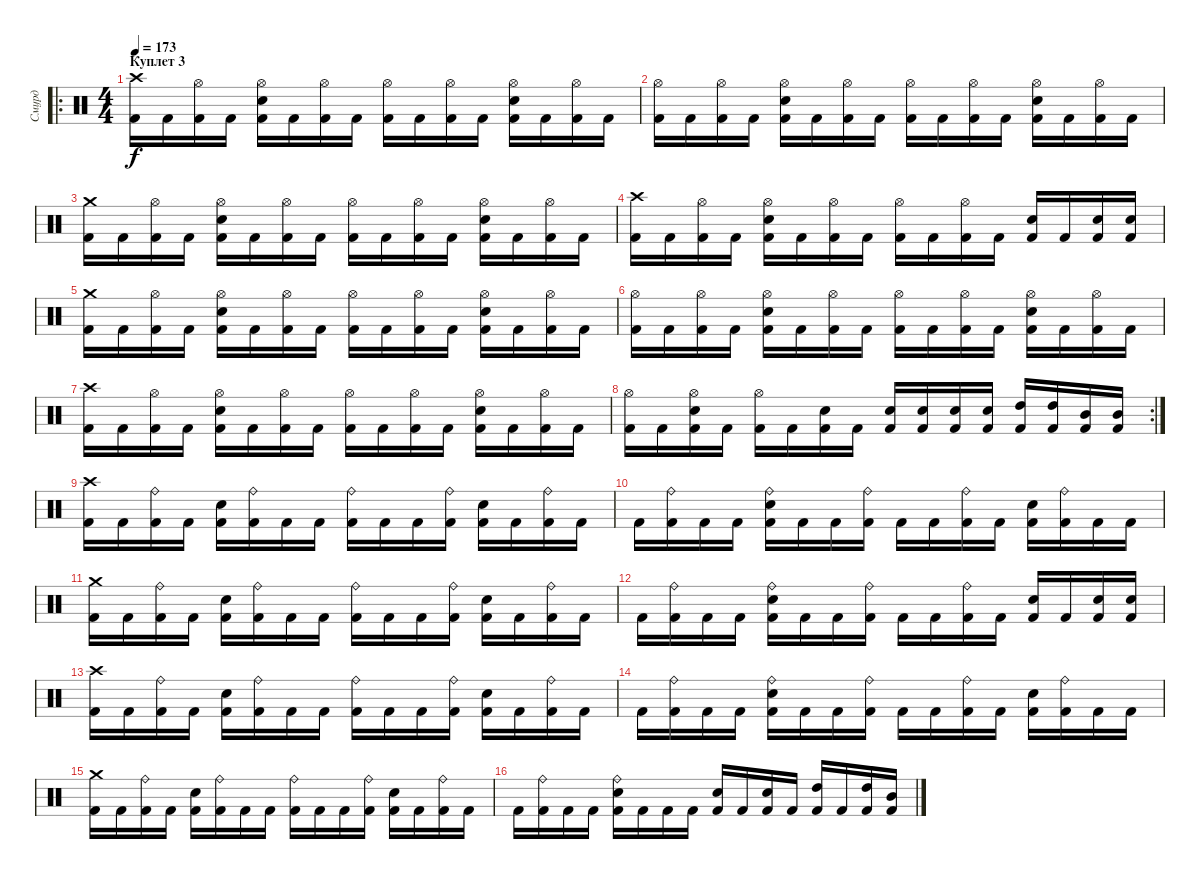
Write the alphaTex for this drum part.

\track ("Смурд" "Смурд") {instrument percussion}
\staff {score}
\articulation defaults
\ro
\ts (4 4)
\section ("" "Куплет 3")
\tempo 173
\clef neutral
\ks c
("Crash high (hit)" "Kick (hit) 2").16{dy f} "Kick (hit) 2".16 ("Hi-Hat (open)" "Kick (hit) 2").16 "Kick (hit) 2".16 ("Hi-Hat (open)" "Electric Snare (hit)" "Kick (hit) 2").16 "Kick (hit) 2".16 ("Hi-Hat (open)" "Kick (hit) 2").16 "Kick (hit) 2".16 ("Hi-Hat (open)" "Kick (hit) 2").16 "Kick (hit) 2".16 ("Hi-Hat (open)" "Kick (hit) 2").16 "Kick (hit) 2".16 ("Hi-Hat (open)" "Electric Snare (hit)" "Kick (hit) 2").16 "Kick (hit) 2".16 ("Hi-Hat (open)" "Kick (hit) 2").16 "Kick (hit) 2".16 |
("Hi-Hat (open)" "Kick (hit) 2").16 "Kick (hit) 2".16 ("Hi-Hat (open)" "Kick (hit) 2").16 "Kick (hit) 2".16 ("Hi-Hat (open)" "Electric Snare (hit)" "Kick (hit) 2").16 "Kick (hit) 2".16 ("Hi-Hat (open)" "Kick (hit) 2").16 "Kick (hit) 2".16 ("Hi-Hat (open)" "Kick (hit) 2").16 "Kick (hit) 2".16 ("Hi-Hat (open)" "Kick (hit) 2").16 "Kick (hit) 2".16 ("Hi-Hat (open)" "Electric Snare (hit)" "Kick (hit) 2").16 "Kick (hit) 2".16 ("Hi-Hat (open)" "Kick (hit) 2").16 "Kick (hit) 2".16 |
("Crash medium (hit)" "Kick (hit) 2").16 "Kick (hit) 2".16 ("Hi-Hat (open)" "Kick (hit) 2").16 "Kick (hit) 2".16 ("Hi-Hat (open)" "Electric Snare (hit)" "Kick (hit) 2").16 "Kick (hit) 2".16 ("Hi-Hat (open)" "Kick (hit) 2").16 "Kick (hit) 2".16 ("Hi-Hat (open)" "Kick (hit) 2").16 "Kick (hit) 2".16 ("Hi-Hat (open)" "Kick (hit) 2").16 "Kick (hit) 2".16 ("Hi-Hat (open)" "Electric Snare (hit)" "Kick (hit) 2").16 "Kick (hit) 2".16 ("Hi-Hat (open)" "Kick (hit) 2").16 "Kick (hit) 2".16 |
("Crash high (hit)" "Kick (hit) 2").16 "Kick (hit) 2".16 ("Hi-Hat (open)" "Kick (hit) 2").16 "Kick (hit) 2".16 ("Hi-Hat (open)" "Electric Snare (hit)" "Kick (hit) 2").16 "Kick (hit) 2".16 ("Hi-Hat (open)" "Kick (hit) 2").16 "Kick (hit) 2".16 ("Hi-Hat (open)" "Kick (hit) 2").16 "Kick (hit) 2".16 ("Hi-Hat (open)" "Kick (hit) 2").16 "Kick (hit) 2".16 ("Electric Snare (hit)" "Kick (hit) 2").16 "Kick (hit) 2".16 ("Electric Snare (hit)" "Kick (hit) 2").16 ("Electric Snare (hit)" "Kick (hit) 2").16 |
("Crash medium (hit)" "Kick (hit) 2").16 "Kick (hit) 2".16 ("Hi-Hat (open)" "Kick (hit) 2").16 "Kick (hit) 2".16 ("Hi-Hat (open)" "Electric Snare (hit)" "Kick (hit) 2").16 "Kick (hit) 2".16 ("Hi-Hat (open)" "Kick (hit) 2").16 "Kick (hit) 2".16 ("Hi-Hat (open)" "Kick (hit) 2").16 "Kick (hit) 2".16 ("Hi-Hat (open)" "Kick (hit) 2").16 "Kick (hit) 2".16 ("Hi-Hat (open)" "Electric Snare (hit)" "Kick (hit) 2").16 "Kick (hit) 2".16 ("Hi-Hat (open)" "Kick (hit) 2").16 "Kick (hit) 2".16 |
("Hi-Hat (open)" "Kick (hit) 2").16 "Kick (hit) 2".16 ("Hi-Hat (open)" "Kick (hit) 2").16 "Kick (hit) 2".16 ("Hi-Hat (open)" "Electric Snare (hit)" "Kick (hit) 2").16 "Kick (hit) 2".16 ("Hi-Hat (open)" "Kick (hit) 2").16 "Kick (hit) 2".16 ("Hi-Hat (open)" "Kick (hit) 2").16 "Kick (hit) 2".16 ("Hi-Hat (open)" "Kick (hit) 2").16 "Kick (hit) 2".16 ("Hi-Hat (open)" "Electric Snare (hit)" "Kick (hit) 2").16 "Kick (hit) 2".16 ("Hi-Hat (open)" "Kick (hit) 2").16 "Kick (hit) 2".16 |
("Crash high (hit)" "Kick (hit) 2").16 "Kick (hit) 2".16 ("Hi-Hat (open)" "Kick (hit) 2").16 "Kick (hit) 2".16 ("Hi-Hat (open)" "Electric Snare (hit)" "Kick (hit) 2").16 "Kick (hit) 2".16 ("Hi-Hat (open)" "Kick (hit) 2").16 "Kick (hit) 2".16 ("Hi-Hat (open)" "Kick (hit) 2").16 "Kick (hit) 2".16 ("Hi-Hat (open)" "Kick (hit) 2").16 "Kick (hit) 2".16 ("Hi-Hat (open)" "Electric Snare (hit)" "Kick (hit) 2").16 "Kick (hit) 2".16 ("Hi-Hat (open)" "Kick (hit) 2").16 "Kick (hit) 2".16 |
\rc 2
("Hi-Hat (open)" "Kick (hit) 2").16 "Kick (hit) 2".16 ("Hi-Hat (open)" "Electric Snare (hit)" "Kick (hit) 2").16 "Kick (hit) 2".16 ("Hi-Hat (open)" "Kick (hit) 2").16 "Kick (hit) 2".16 ("Electric Snare (hit)" "Kick (hit) 2").16 "Kick (hit) 2".16 ("Electric Snare (hit)" "Kick (hit) 2").16 ("Electric Snare (hit)" "Kick (hit) 2").16 ("Electric Snare (hit)" "Kick (hit) 2").16 ("Electric Snare (hit)" "Kick (hit) 2").16 ("High Tom (hit)" "Kick (hit) 2").16 ("High Tom (hit)" "Kick (hit) 2").16 ("Mid Tom (hit)" "Kick (hit) 2").16 ("Mid Tom (hit)" "Kick (hit) 2").16 |
("Crash high (hit)" "Kick (hit) 2").16 "Kick (hit) 2".16 ("Ride (bell)" "Kick (hit) 2").16 "Kick (hit) 2".16 ("Electric Snare (hit)" "Kick (hit) 2").16 ("Ride (bell)" "Kick (hit) 2").16 "Kick (hit) 2".16 "Kick (hit) 2".16 ("Ride (bell)" "Kick (hit) 2").16 "Kick (hit) 2".16 "Kick (hit) 2".16 ("Ride (bell)" "Kick (hit) 2").16 ("Electric Snare (hit)" "Kick (hit) 2").16 "Kick (hit) 2".16 ("Ride (bell)" "Kick (hit) 2").16 "Kick (hit) 2".16 |
"Kick (hit) 2".16 ("Ride (bell)" "Kick (hit) 2").16 "Kick (hit) 2".16 "Kick (hit) 2".16 ("Ride (bell)" "Electric Snare (hit)" "Kick (hit) 2").16 "Kick (hit) 2".16 "Kick (hit) 2".16 ("Ride (bell)" "Kick (hit) 2").16 "Kick (hit) 2".16 "Kick (hit) 2".16 ("Ride (bell)" "Kick (hit) 2").16 "Kick (hit) 2".16 ("Electric Snare (hit)" "Kick (hit) 2").16 ("Ride (bell)" "Kick (hit) 2").16 "Kick (hit) 2".16 "Kick (hit) 2".16 |
("Crash medium (hit)" "Kick (hit) 2").16 "Kick (hit) 2".16 ("Ride (bell)" "Kick (hit) 2").16 "Kick (hit) 2".16 ("Electric Snare (hit)" "Kick (hit) 2").16 ("Ride (bell)" "Kick (hit) 2").16 "Kick (hit) 2".16 "Kick (hit) 2".16 ("Ride (bell)" "Kick (hit) 2").16 "Kick (hit) 2".16 "Kick (hit) 2".16 ("Ride (bell)" "Kick (hit) 2").16 ("Electric Snare (hit)" "Kick (hit) 2").16 "Kick (hit) 2".16 ("Ride (bell)" "Kick (hit) 2").16 "Kick (hit) 2".16 |
"Kick (hit) 2".16 ("Ride (bell)" "Kick (hit) 2").16 "Kick (hit) 2".16 "Kick (hit) 2".16 ("Ride (bell)" "Electric Snare (hit)" "Kick (hit) 2").16 "Kick (hit) 2".16 "Kick (hit) 2".16 ("Ride (bell)" "Kick (hit) 2").16 "Kick (hit) 2".16 "Kick (hit) 2".16 ("Ride (bell)" "Kick (hit) 2").16 "Kick (hit) 2".16 ("Electric Snare (hit)" "Kick (hit) 2").16 "Kick (hit) 2".16 ("Electric Snare (hit)" "Kick (hit) 2").16 ("Electric Snare (hit)" "Kick (hit) 2").16 |
("Crash high (hit)" "Kick (hit) 2").16 "Kick (hit) 2".16 ("Ride (bell)" "Kick (hit) 2").16 "Kick (hit) 2".16 ("Electric Snare (hit)" "Kick (hit) 2").16 ("Ride (bell)" "Kick (hit) 2").16 "Kick (hit) 2".16 "Kick (hit) 2".16 ("Ride (bell)" "Kick (hit) 2").16 "Kick (hit) 2".16 "Kick (hit) 2".16 ("Ride (bell)" "Kick (hit) 2").16 ("Electric Snare (hit)" "Kick (hit) 2").16 "Kick (hit) 2".16 ("Ride (bell)" "Kick (hit) 2").16 "Kick (hit) 2".16 |
"Kick (hit) 2".16 ("Ride (bell)" "Kick (hit) 2").16 "Kick (hit) 2".16 "Kick (hit) 2".16 ("Ride (bell)" "Electric Snare (hit)" "Kick (hit) 2").16 "Kick (hit) 2".16 "Kick (hit) 2".16 ("Ride (bell)" "Kick (hit) 2").16 "Kick (hit) 2".16 "Kick (hit) 2".16 ("Ride (bell)" "Kick (hit) 2").16 "Kick (hit) 2".16 ("Electric Snare (hit)" "Kick (hit) 2").16 ("Ride (bell)" "Kick (hit) 2").16 "Kick (hit) 2".16 "Kick (hit) 2".16 |
("Crash medium (hit)" "Kick (hit) 2").16 "Kick (hit) 2".16 ("Ride (bell)" "Kick (hit) 2").16 "Kick (hit) 2".16 ("Electric Snare (hit)" "Kick (hit) 2").16 ("Ride (bell)" "Kick (hit) 2").16 "Kick (hit) 2".16 "Kick (hit) 2".16 ("Ride (bell)" "Kick (hit) 2").16 "Kick (hit) 2".16 "Kick (hit) 2".16 ("Ride (bell)" "Kick (hit) 2").16 ("Electric Snare (hit)" "Kick (hit) 2").16 "Kick (hit) 2".16 ("Ride (bell)" "Kick (hit) 2").16 "Kick (hit) 2".16 |
"Kick (hit) 2".16 ("Ride (bell)" "Kick (hit) 2").16 "Kick (hit) 2".16 "Kick (hit) 2".16 ("Ride (bell)" "Electric Snare (hit)" "Kick (hit) 2").16 "Kick (hit) 2".16 "Kick (hit) 2".16 "Kick (hit) 2".16 ("Electric Snare (hit)" "Kick (hit) 2").16 "Kick (hit) 2".16 ("Electric Snare (hit)" "Kick (hit) 2").16 "Kick (hit) 2".16 ("High Tom (hit)" "Kick (hit) 2").16 "Kick (hit) 2".16 ("High Tom (hit)" "Kick (hit) 2").16 ("Mid Tom (hit)" "Kick (hit) 2").16
